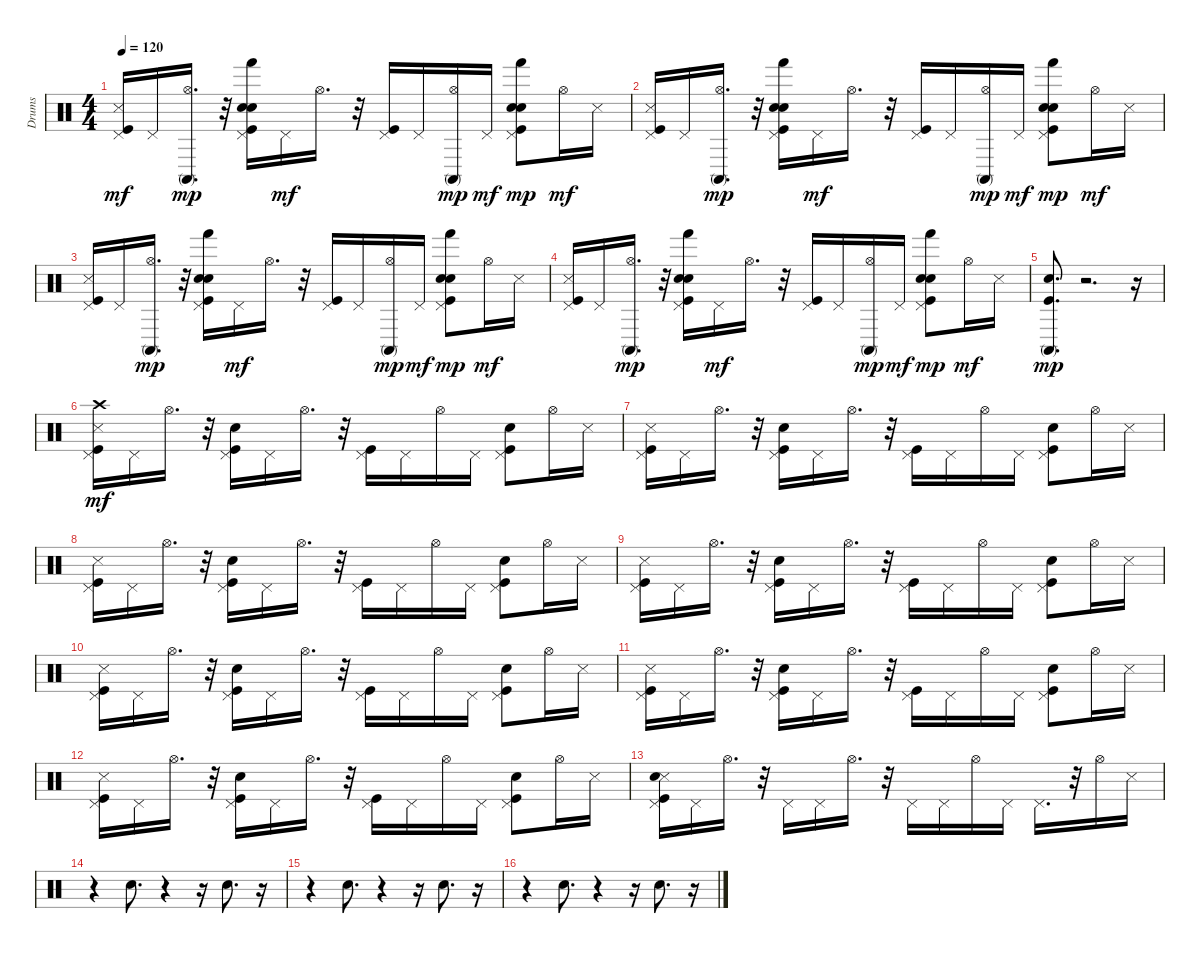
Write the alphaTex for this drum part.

\track ("Drums" "Drums") {instrument percussion}
\staff {score}
\articulation defaults
\ts (4 4)
\tempo 120
\clef neutral
\ks c
("Kick (hit)" "Pedal Hi-Hat (hit)" "Snare (side stick) 3").16{dy mf} "Pedal Hi-Hat (hit)".16 ("Hi-Hat (open)" "Conga high (mute)").16{d dy mp} r.32 ("Snare (hit) 2" "Kick (hit)" "Hand Clap (hit)" "Pedal Hi-Hat (hit)" "Hand (hit)").16 "Pedal Hi-Hat (hit)".16{dy mf} "Hi-Hat (open)".16{d} r.32 ("Kick (hit)" "Pedal Hi-Hat (hit)").16 "Pedal Hi-Hat (hit)".16 ("Hi-Hat (open)" "Conga high (mute)").16{dy mp} "Pedal Hi-Hat (hit)".16{dy mf} ("Snare (hit) 2" "Kick (hit)" "Hand Clap (hit)" "Pedal Hi-Hat (hit)" "Hand (hit)").8{dy mp} "Hi-Hat (open)".16{dy mf} "Snare (side stick) 3".16 |
("Kick (hit)" "Pedal Hi-Hat (hit)" "Snare (side stick) 3").16 "Pedal Hi-Hat (hit)".16 ("Hi-Hat (open)" "Conga high (mute)").16{d dy mp} r.32 ("Kick (hit)" "Snare (hit) 2" "Hand Clap (hit)" "Pedal Hi-Hat (hit)" "Hand (hit)").16 "Pedal Hi-Hat (hit)".16{dy mf} "Hi-Hat (open)".16{d} r.32 ("Kick (hit)" "Pedal Hi-Hat (hit)").16 "Pedal Hi-Hat (hit)".16 ("Hi-Hat (open)" "Conga high (mute)").16{dy mp} "Pedal Hi-Hat (hit)".16{dy mf} ("Kick (hit)" "Snare (hit) 2" "Hand Clap (hit)" "Pedal Hi-Hat (hit)" "Hand (hit)").8{dy mp} "Hi-Hat (open)".16{dy mf} "Snare (side stick) 3".16 |
("Kick (hit)" "Snare (side stick) 3" "Pedal Hi-Hat (hit)").16 "Pedal Hi-Hat (hit)".16 ("Hi-Hat (open)" "Conga high (mute)").16{d dy mp} r.32 ("Snare (hit) 2" "Kick (hit)" "Hand Clap (hit)" "Pedal Hi-Hat (hit)" "Hand (hit)").16 "Pedal Hi-Hat (hit)".16{dy mf} "Hi-Hat (open)".16{d} r.32 ("Kick (hit)" "Pedal Hi-Hat (hit)").16 "Pedal Hi-Hat (hit)".16 ("Hi-Hat (open)" "Conga high (mute)").16{dy mp} "Pedal Hi-Hat (hit)".16{dy mf} ("Snare (hit) 2" "Kick (hit)" "Hand Clap (hit)" "Pedal Hi-Hat (hit)" "Hand (hit)").8{dy mp} "Hi-Hat (open)".16{dy mf} "Snare (side stick) 3".16 |
("Pedal Hi-Hat (hit)" "Snare (side stick) 3" "Kick (hit)").16 "Pedal Hi-Hat (hit)".16 ("Hi-Hat (open)" "Conga high (mute)").16{d dy mp} r.32 ("Hand Clap (hit)" "Pedal Hi-Hat (hit)" "Snare (hit) 2" "Kick (hit)" "Hand (hit)").16 "Pedal Hi-Hat (hit)".16{dy mf} "Hi-Hat (open)".16{d} r.32 ("Pedal Hi-Hat (hit)" "Kick (hit)").16 "Pedal Hi-Hat (hit)".16 ("Hi-Hat (open)" "Conga high (mute)").16{dy mp} "Pedal Hi-Hat (hit)".16{dy mf} ("Hand Clap (hit)" "Pedal Hi-Hat (hit)" "Snare (hit) 2" "Kick (hit)" "Hand (hit)").8{dy mp} "Hi-Hat (open)".16{dy mf} "Snare (side stick) 3".16 |
("Snare (hit) 2" "Kick (hit)" "Conga high (mute)").8{d dy mp} r.2{d} r.16 |
("Crash high (hit)" "Pedal Hi-Hat (hit)" "Snare (side stick) 3" "Kick (hit)").16{dy mf} "Pedal Hi-Hat (hit)".16 "Hi-Hat (open)".16{d} r.32 ("Pedal Hi-Hat (hit)" "Snare (hit) 2" "Kick (hit)").16 "Pedal Hi-Hat (hit)".16 "Hi-Hat (open)".16{d} r.32 ("Pedal Hi-Hat (hit)" "Kick (hit)").16 "Pedal Hi-Hat (hit)".16 "Hi-Hat (open)".16 "Pedal Hi-Hat (hit)".16 ("Pedal Hi-Hat (hit)" "Snare (hit) 2" "Kick (hit)").8 "Hi-Hat (open)".16 "Snare (side stick) 3".16 |
("Snare (side stick) 3" "Pedal Hi-Hat (hit)" "Kick (hit)").16 "Pedal Hi-Hat (hit)".16 "Hi-Hat (open)".16{d} r.32 ("Pedal Hi-Hat (hit)" "Snare (hit) 2" "Kick (hit)").16 "Pedal Hi-Hat (hit)".16 "Hi-Hat (open)".16{d} r.32 ("Pedal Hi-Hat (hit)" "Kick (hit)").16 "Pedal Hi-Hat (hit)".16 "Hi-Hat (open)".16 "Pedal Hi-Hat (hit)".16 ("Pedal Hi-Hat (hit)" "Snare (hit) 2" "Kick (hit)").8 "Hi-Hat (open)".16 "Snare (side stick) 3".16 |
("Pedal Hi-Hat (hit)" "Snare (side stick) 3" "Kick (hit)").16 "Pedal Hi-Hat (hit)".16 "Hi-Hat (open)".16{d} r.32 ("Pedal Hi-Hat (hit)" "Snare (hit) 2" "Kick (hit)").16 "Pedal Hi-Hat (hit)".16 "Hi-Hat (open)".16{d} r.32 ("Pedal Hi-Hat (hit)" "Kick (hit)").16 "Pedal Hi-Hat (hit)".16 "Hi-Hat (open)".16 "Pedal Hi-Hat (hit)".16 ("Pedal Hi-Hat (hit)" "Snare (hit) 2" "Kick (hit)").8 "Hi-Hat (open)".16 "Snare (side stick) 3".16 |
("Snare (side stick) 3" "Pedal Hi-Hat (hit)" "Kick (hit)").16 "Pedal Hi-Hat (hit)".16 "Hi-Hat (open)".16{d} r.32 ("Pedal Hi-Hat (hit)" "Snare (hit) 2" "Kick (hit)").16 "Pedal Hi-Hat (hit)".16 "Hi-Hat (open)".16{d} r.32 ("Pedal Hi-Hat (hit)" "Kick (hit)").16 "Pedal Hi-Hat (hit)".16 "Hi-Hat (open)".16 "Pedal Hi-Hat (hit)".16 ("Pedal Hi-Hat (hit)" "Snare (hit) 2" "Kick (hit)").8 "Hi-Hat (open)".16 "Snare (side stick) 3".16 |
("Pedal Hi-Hat (hit)" "Snare (side stick) 3" "Kick (hit)").16 "Pedal Hi-Hat (hit)".16 "Hi-Hat (open)".16{d} r.32 ("Pedal Hi-Hat (hit)" "Snare (hit) 2" "Kick (hit)").16 "Pedal Hi-Hat (hit)".16 "Hi-Hat (open)".16{d} r.32 ("Pedal Hi-Hat (hit)" "Kick (hit)").16 "Pedal Hi-Hat (hit)".16 "Hi-Hat (open)".16 "Pedal Hi-Hat (hit)".16 ("Pedal Hi-Hat (hit)" "Snare (hit) 2" "Kick (hit)").8 "Hi-Hat (open)".16 "Snare (side stick) 3".16 |
("Snare (side stick) 3" "Pedal Hi-Hat (hit)" "Kick (hit)").16 "Pedal Hi-Hat (hit)".16 "Hi-Hat (open)".16{d} r.32 ("Pedal Hi-Hat (hit)" "Snare (hit) 2" "Kick (hit)").16 "Pedal Hi-Hat (hit)".16 "Hi-Hat (open)".16{d} r.32 ("Pedal Hi-Hat (hit)" "Kick (hit)").16 "Pedal Hi-Hat (hit)".16 "Hi-Hat (open)".16 "Pedal Hi-Hat (hit)".16 ("Pedal Hi-Hat (hit)" "Snare (hit) 2" "Kick (hit)").8 "Hi-Hat (open)".16 "Snare (side stick) 3".16 |
("Pedal Hi-Hat (hit)" "Snare (side stick) 3" "Kick (hit)").16 "Pedal Hi-Hat (hit)".16 "Hi-Hat (open)".16{d} r.32 ("Pedal Hi-Hat (hit)" "Snare (hit) 2" "Kick (hit)").16 "Pedal Hi-Hat (hit)".16 "Hi-Hat (open)".16{d} r.32 ("Pedal Hi-Hat (hit)" "Kick (hit)").16 "Pedal Hi-Hat (hit)".16 "Hi-Hat (open)".16 "Pedal Hi-Hat (hit)".16 ("Pedal Hi-Hat (hit)" "Snare (hit) 2" "Kick (hit)").8 "Hi-Hat (open)".16 "Snare (side stick) 3".16 |
("Snare (side stick) 3" "Pedal Hi-Hat (hit)" "Snare (hit) 2" "Kick (hit)").16 "Pedal Hi-Hat (hit)".16 "Hi-Hat (open)".16{d} r.32 "Pedal Hi-Hat (hit)".16 "Pedal Hi-Hat (hit)".16 "Hi-Hat (open)".16{d} r.32 "Pedal Hi-Hat (hit)".16 "Pedal Hi-Hat (hit)".16 "Hi-Hat (open)".16 "Pedal Hi-Hat (hit)".16 "Pedal Hi-Hat (hit)".16{d} r.32 "Hi-Hat (open)".16 "Snare (side stick) 3".16 |
r.4 "Hand Clap (hit)".8{d} r.4 r.16 "Hand Clap (hit)".8{d} r.16 |
r.4 "Hand Clap (hit)".8{d} r.4 r.16 "Hand Clap (hit)".8{d} r.16 |
r.4 "Hand Clap (hit)".8{d} r.4 r.16 "Hand Clap (hit)".8{d} r.16
